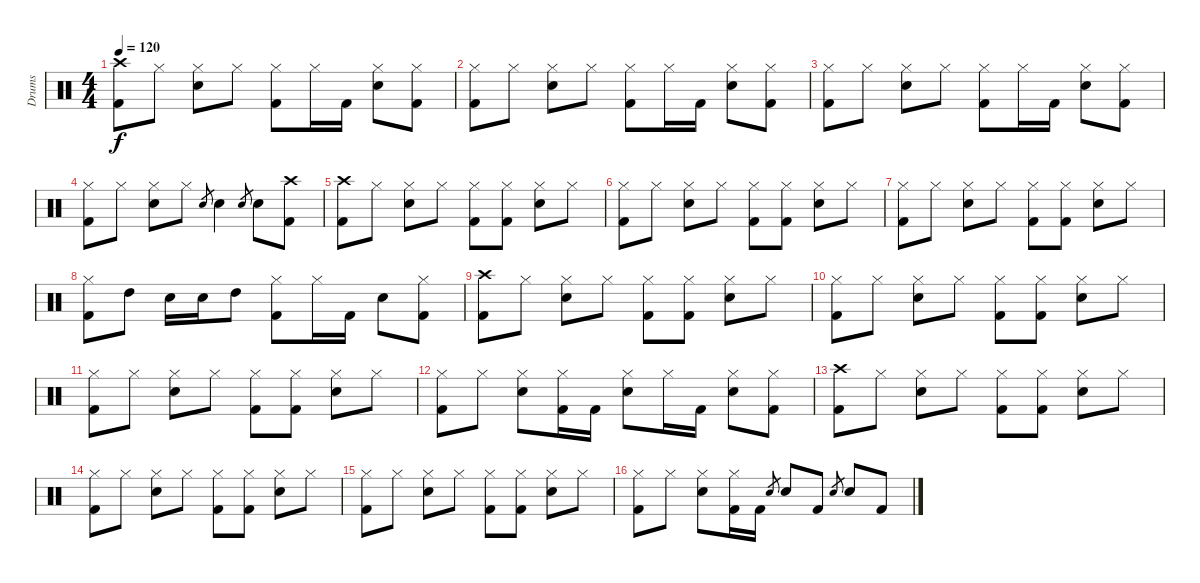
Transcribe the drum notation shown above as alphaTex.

\track ("Drums" "Drums") {instrument percussion}
\staff {score}
\articulation defaults
\ts (4 4)
\tempo 120
\clef neutral
\ks c
("Crash high (hit)" "Kick (hit) 2").8{dy f} "Hi-Hat (closed)".8 ("Hi-Hat (closed)" "Electric Snare (hit)").8 "Hi-Hat (closed)".8 ("Hi-Hat (closed)" "Kick (hit) 2").8 "Hi-Hat (closed)".16 "Kick (hit) 2".16 ("Hi-Hat (closed)" "Electric Snare (hit)").8 ("Hi-Hat (closed)" "Kick (hit) 2").8 |
("Hi-Hat (closed)" "Kick (hit) 2").8 "Hi-Hat (closed)".8 ("Hi-Hat (closed)" "Electric Snare (hit)").8 "Hi-Hat (closed)".8 ("Hi-Hat (closed)" "Kick (hit) 2").8 "Hi-Hat (closed)".16 "Kick (hit) 2".16 ("Hi-Hat (closed)" "Electric Snare (hit)").8 ("Hi-Hat (closed)" "Kick (hit) 2").8 |
("Hi-Hat (closed)" "Kick (hit) 2").8 "Hi-Hat (closed)".8 ("Hi-Hat (closed)" "Electric Snare (hit)").8 "Hi-Hat (closed)".8 ("Hi-Hat (closed)" "Kick (hit) 2").8 "Hi-Hat (closed)".16 "Kick (hit) 2".16 ("Hi-Hat (closed)" "Electric Snare (hit)").8 ("Hi-Hat (closed)" "Kick (hit) 2").8 |
("Hi-Hat (closed)" "Kick (hit) 2").8 "Hi-Hat (closed)".8 ("Hi-Hat (closed)" "Electric Snare (hit)").8 "Hi-Hat (closed)".8 "Electric Snare (hit)".8{gr} "Electric Snare (hit)".4 "Electric Snare (hit)".8{gr} "Electric Snare (hit)".8 ("Crash high (hit)" "Kick (hit) 2").8 |
("Crash high (hit)" "Kick (hit) 2").8 "Hi-Hat (closed)".8 ("Hi-Hat (closed)" "Electric Snare (hit)").8 "Hi-Hat (closed)".8 ("Hi-Hat (closed)" "Kick (hit) 2").8 ("Hi-Hat (closed)" "Kick (hit) 2").8 ("Hi-Hat (closed)" "Electric Snare (hit)").8 "Hi-Hat (closed)".8 |
("Hi-Hat (closed)" "Kick (hit) 2").8 "Hi-Hat (closed)".8 ("Hi-Hat (closed)" "Electric Snare (hit)").8 "Hi-Hat (closed)".8 ("Hi-Hat (closed)" "Kick (hit) 2").8 ("Hi-Hat (closed)" "Kick (hit) 2").8 ("Hi-Hat (closed)" "Electric Snare (hit)").8 "Hi-Hat (closed)".8 |
("Hi-Hat (closed)" "Kick (hit) 2").8 "Hi-Hat (closed)".8 ("Hi-Hat (closed)" "Electric Snare (hit)").8 "Hi-Hat (closed)".8 ("Hi-Hat (closed)" "Kick (hit) 2").8 ("Hi-Hat (closed)" "Kick (hit) 2").8 ("Hi-Hat (closed)" "Electric Snare (hit)").8 "Hi-Hat (closed)".8 |
("Hi-Hat (closed)" "Kick (hit) 2").8 "High Tom (hit)".8 "Electric Snare (hit)".16 "Electric Snare (hit)".16 "High Tom (hit)".8 ("Hi-Hat (closed)" "Kick (hit) 2").8 "Hi-Hat (closed)".16 "Kick (hit) 2".16 "Electric Snare (hit)".8 ("Hi-Hat (closed)" "Kick (hit) 2").8 |
("Crash high (hit)" "Kick (hit) 2").8 "Hi-Hat (closed)".8 ("Hi-Hat (closed)" "Electric Snare (hit)").8 "Hi-Hat (closed)".8 ("Hi-Hat (closed)" "Kick (hit) 2").8 ("Hi-Hat (closed)" "Kick (hit) 2").8 ("Hi-Hat (closed)" "Electric Snare (hit)").8 "Hi-Hat (closed)".8 |
("Hi-Hat (closed)" "Kick (hit) 2").8 "Hi-Hat (closed)".8 ("Hi-Hat (closed)" "Electric Snare (hit)").8 "Hi-Hat (closed)".8 ("Hi-Hat (closed)" "Kick (hit) 2").8 ("Hi-Hat (closed)" "Kick (hit) 2").8 ("Hi-Hat (closed)" "Electric Snare (hit)").8 "Hi-Hat (closed)".8 |
("Hi-Hat (closed)" "Kick (hit) 2").8 "Hi-Hat (closed)".8 ("Hi-Hat (closed)" "Electric Snare (hit)").8 "Hi-Hat (closed)".8 ("Hi-Hat (closed)" "Kick (hit) 2").8 ("Hi-Hat (closed)" "Kick (hit) 2").8 ("Hi-Hat (closed)" "Electric Snare (hit)").8 "Hi-Hat (closed)".8 |
("Hi-Hat (closed)" "Kick (hit) 2").8 "Hi-Hat (closed)".8 ("Hi-Hat (closed)" "Electric Snare (hit)").8 ("Hi-Hat (closed)" "Kick (hit) 2").16 "Kick (hit) 2".16 ("Hi-Hat (closed)" "Electric Snare (hit)").8 "Hi-Hat (closed)".16 "Kick (hit) 2".16 ("Hi-Hat (closed)" "Electric Snare (hit)").8 ("Hi-Hat (closed)" "Kick (hit) 2").8 |
("Crash high (hit)" "Kick (hit) 2").8 "Hi-Hat (closed)".8 ("Hi-Hat (closed)" "Electric Snare (hit)").8 "Hi-Hat (closed)".8 ("Hi-Hat (closed)" "Kick (hit) 2").8 ("Hi-Hat (closed)" "Kick (hit) 2").8 ("Hi-Hat (closed)" "Electric Snare (hit)").8 "Hi-Hat (closed)".8 |
("Hi-Hat (closed)" "Kick (hit) 2").8 "Hi-Hat (closed)".8 ("Hi-Hat (closed)" "Electric Snare (hit)").8 "Hi-Hat (closed)".8 ("Hi-Hat (closed)" "Kick (hit) 2").8 ("Hi-Hat (closed)" "Kick (hit) 2").8 ("Hi-Hat (closed)" "Electric Snare (hit)").8 "Hi-Hat (closed)".8 |
("Hi-Hat (closed)" "Kick (hit) 2").8 "Hi-Hat (closed)".8 ("Hi-Hat (closed)" "Electric Snare (hit)").8 "Hi-Hat (closed)".8 ("Hi-Hat (closed)" "Kick (hit) 2").8 ("Hi-Hat (closed)" "Kick (hit) 2").8 ("Hi-Hat (closed)" "Electric Snare (hit)").8 "Hi-Hat (closed)".8 |
("Hi-Hat (closed)" "Kick (hit) 2").8 "Hi-Hat (closed)".8 ("Hi-Hat (closed)" "Electric Snare (hit)").8 ("Hi-Hat (closed)" "Kick (hit) 2").16 "Kick (hit) 2".16 "Electric Snare (hit)".8{gr} "Electric Snare (hit)".8 "Kick (hit) 2".8 "Electric Snare (hit)".8{gr} "Electric Snare (hit)".8 "Kick (hit) 2".8
